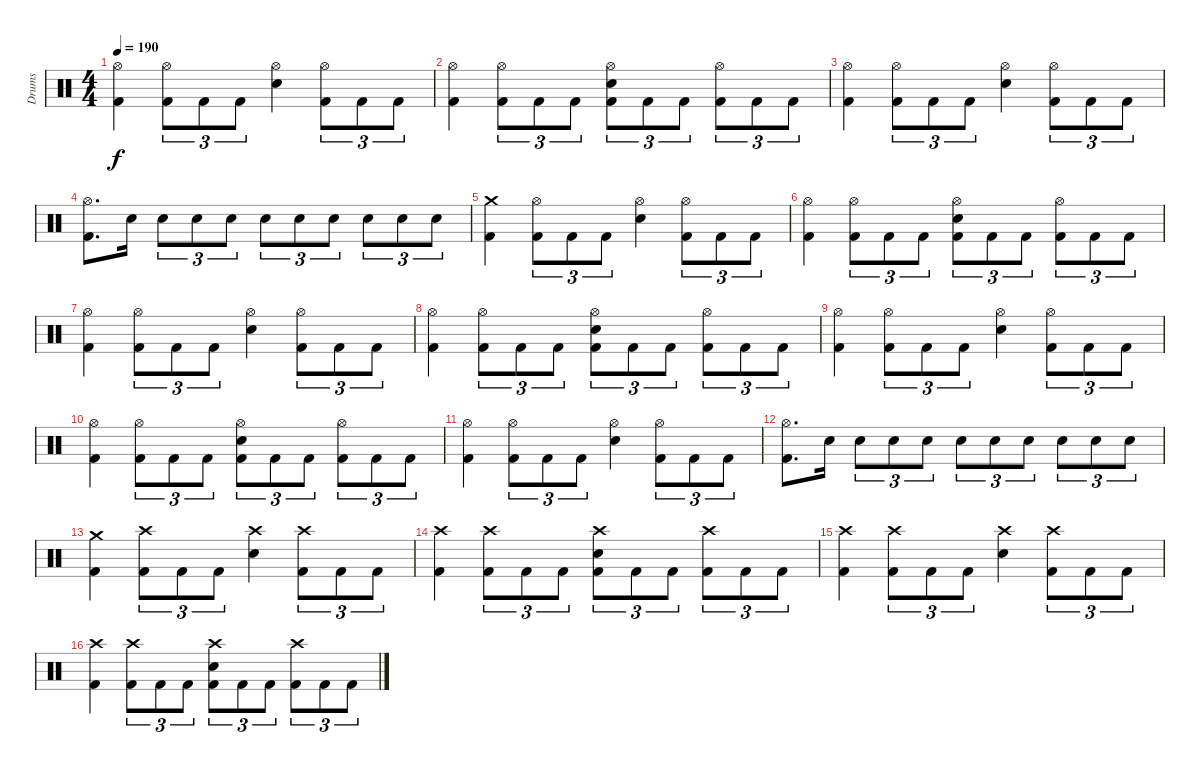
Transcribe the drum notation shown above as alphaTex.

\track ("Drums" "Drums") {instrument percussion}
\staff {score}
\articulation defaults
\ts (4 4)
\tempo 190
\clef neutral
\ks c
("Hi-Hat (open)" "Kick (hit) 2").4{dy f} ("Hi-Hat (open)" "Kick (hit) 2").8{tu (3 2)} "Kick (hit) 2".8{tu (3 2)} "Kick (hit) 2".8{tu (3 2)} ("Hi-Hat (open)" "Snare (hit) 2").4 ("Hi-Hat (open)" "Kick (hit) 2").8{tu (3 2)} "Kick (hit) 2".8{tu (3 2)} "Kick (hit) 2".8{tu (3 2)} |
("Hi-Hat (open)" "Kick (hit) 2").4 ("Hi-Hat (open)" "Kick (hit) 2").8{tu (3 2)} "Kick (hit) 2".8{tu (3 2)} "Kick (hit) 2".8{tu (3 2)} ("Hi-Hat (open)" "Snare (hit) 2" "Kick (hit) 2").8{tu (3 2)} "Kick (hit) 2".8{tu (3 2)} "Kick (hit) 2".8{tu (3 2)} ("Hi-Hat (open)" "Kick (hit) 2").8{tu (3 2)} "Kick (hit) 2".8{tu (3 2)} "Kick (hit) 2".8{tu (3 2)} |
("Hi-Hat (open)" "Kick (hit) 2").4 ("Hi-Hat (open)" "Kick (hit) 2").8{tu (3 2)} "Kick (hit) 2".8{tu (3 2)} "Kick (hit) 2".8{tu (3 2)} ("Hi-Hat (open)" "Snare (hit) 2").4 ("Hi-Hat (open)" "Kick (hit) 2").8{tu (3 2)} "Kick (hit) 2".8{tu (3 2)} "Kick (hit) 2".8{tu (3 2)} |
("Hi-Hat (open)" "Kick (hit) 2").8{d} "Snare (hit) 2".16 "Snare (hit) 2".8{tu (3 2)} "Snare (hit) 2".8{tu (3 2)} "Snare (hit) 2".8{tu (3 2)} "Snare (hit) 2".8{tu (3 2)} "Snare (hit) 2".8{tu (3 2)} "Snare (hit) 2".8{tu (3 2)} "Snare (hit) 2".8{tu (3 2)} "Snare (hit) 2".8{tu (3 2)} "Snare (hit) 2".8{tu (3 2)} |
("Crash medium (hit)" "Kick (hit) 2").4 ("Hi-Hat (open)" "Kick (hit) 2").8{tu (3 2)} "Kick (hit) 2".8{tu (3 2)} "Kick (hit) 2".8{tu (3 2)} ("Hi-Hat (open)" "Snare (hit) 2").4 ("Hi-Hat (open)" "Kick (hit) 2").8{tu (3 2)} "Kick (hit) 2".8{tu (3 2)} "Kick (hit) 2".8{tu (3 2)} |
("Hi-Hat (open)" "Kick (hit) 2").4 ("Hi-Hat (open)" "Kick (hit) 2").8{tu (3 2)} "Kick (hit) 2".8{tu (3 2)} "Kick (hit) 2".8{tu (3 2)} ("Hi-Hat (open)" "Snare (hit) 2" "Kick (hit) 2").8{tu (3 2)} "Kick (hit) 2".8{tu (3 2)} "Kick (hit) 2".8{tu (3 2)} ("Hi-Hat (open)" "Kick (hit) 2").8{tu (3 2)} "Kick (hit) 2".8{tu (3 2)} "Kick (hit) 2".8{tu (3 2)} |
("Hi-Hat (open)" "Kick (hit) 2").4 ("Hi-Hat (open)" "Kick (hit) 2").8{tu (3 2)} "Kick (hit) 2".8{tu (3 2)} "Kick (hit) 2".8{tu (3 2)} ("Hi-Hat (open)" "Snare (hit) 2").4 ("Hi-Hat (open)" "Kick (hit) 2").8{tu (3 2)} "Kick (hit) 2".8{tu (3 2)} "Kick (hit) 2".8{tu (3 2)} |
("Hi-Hat (open)" "Kick (hit) 2").4 ("Hi-Hat (open)" "Kick (hit) 2").8{tu (3 2)} "Kick (hit) 2".8{tu (3 2)} "Kick (hit) 2".8{tu (3 2)} ("Hi-Hat (open)" "Snare (hit) 2" "Kick (hit) 2").8{tu (3 2)} "Kick (hit) 2".8{tu (3 2)} "Kick (hit) 2".8{tu (3 2)} ("Hi-Hat (open)" "Kick (hit) 2").8{tu (3 2)} "Kick (hit) 2".8{tu (3 2)} "Kick (hit) 2".8{tu (3 2)} |
("Hi-Hat (open)" "Kick (hit) 2").4 ("Hi-Hat (open)" "Kick (hit) 2").8{tu (3 2)} "Kick (hit) 2".8{tu (3 2)} "Kick (hit) 2".8{tu (3 2)} ("Hi-Hat (open)" "Snare (hit) 2").4 ("Hi-Hat (open)" "Kick (hit) 2").8{tu (3 2)} "Kick (hit) 2".8{tu (3 2)} "Kick (hit) 2".8{tu (3 2)} |
("Hi-Hat (open)" "Kick (hit) 2").4 ("Hi-Hat (open)" "Kick (hit) 2").8{tu (3 2)} "Kick (hit) 2".8{tu (3 2)} "Kick (hit) 2".8{tu (3 2)} ("Hi-Hat (open)" "Snare (hit) 2" "Kick (hit) 2").8{tu (3 2)} "Kick (hit) 2".8{tu (3 2)} "Kick (hit) 2".8{tu (3 2)} ("Hi-Hat (open)" "Kick (hit) 2").8{tu (3 2)} "Kick (hit) 2".8{tu (3 2)} "Kick (hit) 2".8{tu (3 2)} |
("Hi-Hat (open)" "Kick (hit) 2").4 ("Hi-Hat (open)" "Kick (hit) 2").8{tu (3 2)} "Kick (hit) 2".8{tu (3 2)} "Kick (hit) 2".8{tu (3 2)} ("Hi-Hat (open)" "Snare (hit) 2").4 ("Hi-Hat (open)" "Kick (hit) 2").8{tu (3 2)} "Kick (hit) 2".8{tu (3 2)} "Kick (hit) 2".8{tu (3 2)} |
("Hi-Hat (open)" "Kick (hit) 2").8{d} "Snare (hit) 2".16 "Snare (hit) 2".8{tu (3 2)} "Snare (hit) 2".8{tu (3 2)} "Snare (hit) 2".8{tu (3 2)} "Snare (hit) 2".8{tu (3 2)} "Snare (hit) 2".8{tu (3 2)} "Snare (hit) 2".8{tu (3 2)} "Snare (hit) 2".8{tu (3 2)} "Snare (hit) 2".8{tu (3 2)} "Snare (hit) 2".8{tu (3 2)} |
("Crash medium (hit)" "Kick (hit) 2").4 ("Crash high (hit)" "Kick (hit) 2").8{tu (3 2)} "Kick (hit) 2".8{tu (3 2)} "Kick (hit) 2".8{tu (3 2)} ("Crash high (hit)" "Snare (hit) 2").4 ("Crash high (hit)" "Kick (hit) 2").8{tu (3 2)} "Kick (hit) 2".8{tu (3 2)} "Kick (hit) 2".8{tu (3 2)} |
("Crash high (hit)" "Kick (hit) 2").4 ("Crash high (hit)" "Kick (hit) 2").8{tu (3 2)} "Kick (hit) 2".8{tu (3 2)} "Kick (hit) 2".8{tu (3 2)} ("Crash high (hit)" "Snare (hit) 2" "Kick (hit) 2").8{tu (3 2)} "Kick (hit) 2".8{tu (3 2)} "Kick (hit) 2".8{tu (3 2)} ("Crash high (hit)" "Kick (hit) 2").8{tu (3 2)} "Kick (hit) 2".8{tu (3 2)} "Kick (hit) 2".8{tu (3 2)} |
("Crash high (hit)" "Kick (hit) 2").4 ("Crash high (hit)" "Kick (hit) 2").8{tu (3 2)} "Kick (hit) 2".8{tu (3 2)} "Kick (hit) 2".8{tu (3 2)} ("Crash high (hit)" "Snare (hit) 2").4 ("Crash high (hit)" "Kick (hit) 2").8{tu (3 2)} "Kick (hit) 2".8{tu (3 2)} "Kick (hit) 2".8{tu (3 2)} |
("Crash high (hit)" "Kick (hit) 2").4 ("Crash high (hit)" "Kick (hit) 2").8{tu (3 2)} "Kick (hit) 2".8{tu (3 2)} "Kick (hit) 2".8{tu (3 2)} ("Crash high (hit)" "Snare (hit) 2" "Kick (hit) 2").8{tu (3 2)} "Kick (hit) 2".8{tu (3 2)} "Kick (hit) 2".8{tu (3 2)} ("Crash high (hit)" "Kick (hit) 2").8{tu (3 2)} "Kick (hit) 2".8{tu (3 2)} "Kick (hit) 2".8{tu (3 2)}
